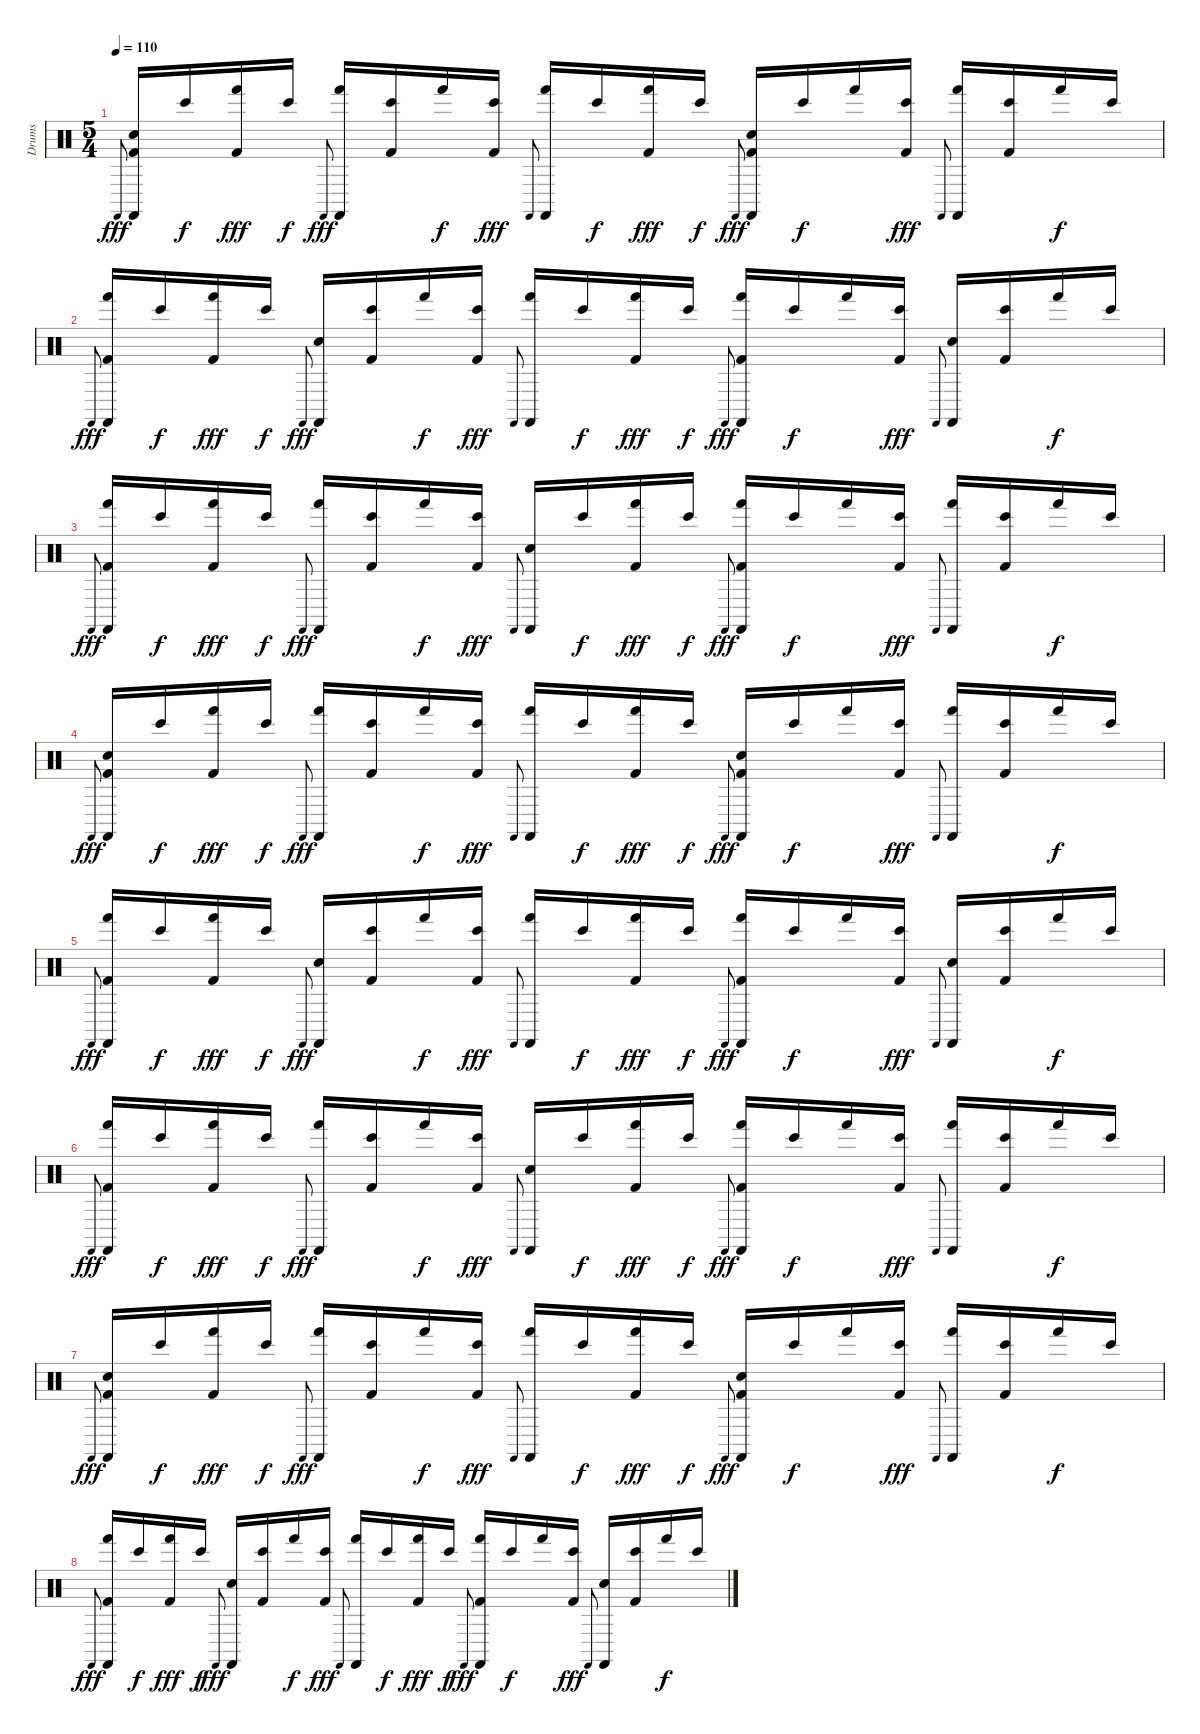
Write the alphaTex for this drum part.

\track ("Drums" "Drums") {instrument percussion}
\staff {score}
\articulation defaults
\ts (5 4)
\tempo 110
\clef neutral
\ks c "Castanets (hit)".8{gr onbeat dy fff}
("Castanets (hit)" "Snare (hit) 2" "Kick (hit) 2").16 "Bongo High (hit)".16{dy f} ("Hand (hit)" "Kick (hit) 2").16{dy fff} "Bongo High (hit)".16{dy f} "Castanets (hit)".8{gr onbeat dy fff} ("Castanets (hit)" "Hand (hit)").16 ("Bongo High (hit)" "Kick (hit) 2").16 "Hand (hit)".16{dy f} ("Bongo High (hit)" "Kick (hit) 2").16{dy fff} "Castanets (hit)".8{gr onbeat} ("Castanets (hit)" "Hand (hit)").16 "Bongo High (hit)".16{dy f} ("Hand (hit)" "Kick (hit) 2").16{dy fff} "Bongo High (hit)".16{dy f} "Castanets (hit)".8{gr onbeat dy fff} ("Castanets (hit)" "Snare (hit) 2" "Kick (hit) 2").16 "Bongo High (hit)".16{dy f} "Hand (hit)".16 ("Bongo High (hit)" "Kick (hit) 2").16{dy fff} "Castanets (hit)".8{gr onbeat} ("Castanets (hit)" "Hand (hit)").16 ("Bongo High (hit)" "Kick (hit) 2").16 "Hand (hit)".16{dy f} "Bongo High (hit)".16 |
"Castanets (hit)".8{gr onbeat dy fff} ("Castanets (hit)" "Hand (hit)" "Kick (hit) 2").16 "Bongo High (hit)".16{dy f} ("Hand (hit)" "Kick (hit) 2").16{dy fff} "Bongo High (hit)".16{dy f} "Castanets (hit)".8{gr onbeat dy fff} ("Castanets (hit)" "Snare (hit) 2").16 ("Bongo High (hit)" "Kick (hit) 2").16 "Hand (hit)".16{dy f} ("Bongo High (hit)" "Kick (hit) 2").16{dy fff} "Castanets (hit)".8{gr onbeat} ("Castanets (hit)" "Hand (hit)").16 "Bongo High (hit)".16{dy f} ("Hand (hit)" "Kick (hit) 2").16{dy fff} "Bongo High (hit)".16{dy f} "Castanets (hit)".8{gr onbeat dy fff} ("Castanets (hit)" "Hand (hit)" "Kick (hit) 2").16 "Bongo High (hit)".16{dy f} "Hand (hit)".16 ("Bongo High (hit)" "Kick (hit) 2").16{dy fff} "Castanets (hit)".8{gr onbeat} ("Castanets (hit)" "Snare (hit) 2").16 ("Bongo High (hit)" "Kick (hit) 2").16 "Hand (hit)".16{dy f} "Bongo High (hit)".16 |
"Castanets (hit)".8{gr onbeat dy fff} ("Castanets (hit)" "Hand (hit)" "Kick (hit) 2").16 "Bongo High (hit)".16{dy f} ("Hand (hit)" "Kick (hit) 2").16{dy fff} "Bongo High (hit)".16{dy f} "Castanets (hit)".8{gr onbeat dy fff} ("Castanets (hit)" "Hand (hit)").16 ("Bongo High (hit)" "Kick (hit) 2").16 "Hand (hit)".16{dy f} ("Bongo High (hit)" "Kick (hit) 2").16{dy fff} "Castanets (hit)".8{gr onbeat} ("Castanets (hit)" "Snare (hit) 2").16 "Bongo High (hit)".16{dy f} ("Hand (hit)" "Kick (hit) 2").16{dy fff} "Bongo High (hit)".16{dy f} "Castanets (hit)".8{gr onbeat dy fff} ("Castanets (hit)" "Hand (hit)" "Kick (hit) 2").16 "Bongo High (hit)".16{dy f} "Hand (hit)".16 ("Bongo High (hit)" "Kick (hit) 2").16{dy fff} "Castanets (hit)".8{gr onbeat} ("Castanets (hit)" "Hand (hit)").16 ("Bongo High (hit)" "Kick (hit) 2").16 "Hand (hit)".16{dy f} "Bongo High (hit)".16 |
"Castanets (hit)".8{gr onbeat dy fff} ("Castanets (hit)" "Snare (hit) 2" "Kick (hit) 2").16 "Bongo High (hit)".16{dy f} ("Hand (hit)" "Kick (hit) 2").16{dy fff} "Bongo High (hit)".16{dy f} "Castanets (hit)".8{gr onbeat dy fff} ("Castanets (hit)" "Hand (hit)").16 ("Bongo High (hit)" "Kick (hit) 2").16 "Hand (hit)".16{dy f} ("Bongo High (hit)" "Kick (hit) 2").16{dy fff} "Castanets (hit)".8{gr onbeat} ("Castanets (hit)" "Hand (hit)").16 "Bongo High (hit)".16{dy f} ("Hand (hit)" "Kick (hit) 2").16{dy fff} "Bongo High (hit)".16{dy f} "Castanets (hit)".8{gr onbeat dy fff} ("Castanets (hit)" "Snare (hit) 2" "Kick (hit) 2").16 "Bongo High (hit)".16{dy f} "Hand (hit)".16 ("Bongo High (hit)" "Kick (hit) 2").16{dy fff} "Castanets (hit)".8{gr onbeat} ("Castanets (hit)" "Hand (hit)").16 ("Bongo High (hit)" "Kick (hit) 2").16 "Hand (hit)".16{dy f} "Bongo High (hit)".16 |
"Castanets (hit)".8{gr onbeat dy fff} ("Castanets (hit)" "Hand (hit)" "Kick (hit) 2").16 "Bongo High (hit)".16{dy f} ("Hand (hit)" "Kick (hit) 2").16{dy fff} "Bongo High (hit)".16{dy f} "Castanets (hit)".8{gr onbeat dy fff} ("Castanets (hit)" "Snare (hit) 2").16 ("Bongo High (hit)" "Kick (hit) 2").16 "Hand (hit)".16{dy f} ("Bongo High (hit)" "Kick (hit) 2").16{dy fff} "Castanets (hit)".8{gr onbeat} ("Castanets (hit)" "Hand (hit)").16 "Bongo High (hit)".16{dy f} ("Hand (hit)" "Kick (hit) 2").16{dy fff} "Bongo High (hit)".16{dy f} "Castanets (hit)".8{gr onbeat dy fff} ("Castanets (hit)" "Hand (hit)" "Kick (hit) 2").16 "Bongo High (hit)".16{dy f} "Hand (hit)".16 ("Bongo High (hit)" "Kick (hit) 2").16{dy fff} "Castanets (hit)".8{gr onbeat} ("Castanets (hit)" "Snare (hit) 2").16 ("Bongo High (hit)" "Kick (hit) 2").16 "Hand (hit)".16{dy f} "Bongo High (hit)".16 |
"Castanets (hit)".8{gr onbeat dy fff} ("Castanets (hit)" "Hand (hit)" "Kick (hit) 2").16 "Bongo High (hit)".16{dy f} ("Hand (hit)" "Kick (hit) 2").16{dy fff} "Bongo High (hit)".16{dy f} "Castanets (hit)".8{gr onbeat dy fff} ("Castanets (hit)" "Hand (hit)").16 ("Bongo High (hit)" "Kick (hit) 2").16 "Hand (hit)".16{dy f} ("Bongo High (hit)" "Kick (hit) 2").16{dy fff} "Castanets (hit)".8{gr onbeat} ("Castanets (hit)" "Snare (hit) 2").16 "Bongo High (hit)".16{dy f} ("Hand (hit)" "Kick (hit) 2").16{dy fff} "Bongo High (hit)".16{dy f} "Castanets (hit)".8{gr onbeat dy fff} ("Castanets (hit)" "Hand (hit)" "Kick (hit) 2").16 "Bongo High (hit)".16{dy f} "Hand (hit)".16 ("Bongo High (hit)" "Kick (hit) 2").16{dy fff} "Castanets (hit)".8{gr onbeat} ("Castanets (hit)" "Hand (hit)").16 ("Bongo High (hit)" "Kick (hit) 2").16 "Hand (hit)".16{dy f} "Bongo High (hit)".16 |
"Castanets (hit)".8{gr onbeat dy fff} ("Castanets (hit)" "Snare (hit) 2" "Kick (hit) 2").16 "Bongo High (hit)".16{dy f} ("Hand (hit)" "Kick (hit) 2").16{dy fff} "Bongo High (hit)".16{dy f} "Castanets (hit)".8{gr onbeat dy fff} ("Castanets (hit)" "Hand (hit)").16 ("Bongo High (hit)" "Kick (hit) 2").16 "Hand (hit)".16{dy f} ("Bongo High (hit)" "Kick (hit) 2").16{dy fff} "Castanets (hit)".8{gr onbeat} ("Castanets (hit)" "Hand (hit)").16 "Bongo High (hit)".16{dy f} ("Hand (hit)" "Kick (hit) 2").16{dy fff} "Bongo High (hit)".16{dy f} "Castanets (hit)".8{gr onbeat dy fff} ("Castanets (hit)" "Snare (hit) 2" "Kick (hit) 2").16 "Bongo High (hit)".16{dy f} "Hand (hit)".16 ("Bongo High (hit)" "Kick (hit) 2").16{dy fff} "Castanets (hit)".8{gr onbeat} ("Castanets (hit)" "Hand (hit)").16 ("Bongo High (hit)" "Kick (hit) 2").16 "Hand (hit)".16{dy f} "Bongo High (hit)".16 |
"Castanets (hit)".8{gr onbeat dy fff} ("Castanets (hit)" "Hand (hit)" "Kick (hit) 2").16 "Bongo High (hit)".16{dy f} ("Hand (hit)" "Kick (hit) 2").16{dy fff} "Bongo High (hit)".16{dy f} "Castanets (hit)".8{gr onbeat dy fff} ("Castanets (hit)" "Snare (hit) 2").16 ("Bongo High (hit)" "Kick (hit) 2").16 "Hand (hit)".16{dy f} ("Bongo High (hit)" "Kick (hit) 2").16{dy fff} "Castanets (hit)".8{gr onbeat} ("Castanets (hit)" "Hand (hit)").16 "Bongo High (hit)".16{dy f} ("Hand (hit)" "Kick (hit) 2").16{dy fff} "Bongo High (hit)".16{dy f} "Castanets (hit)".8{gr onbeat dy fff} ("Castanets (hit)" "Hand (hit)" "Kick (hit) 2").16 "Bongo High (hit)".16{dy f} "Hand (hit)".16 ("Bongo High (hit)" "Kick (hit) 2").16{dy fff} "Castanets (hit)".8{gr onbeat} ("Castanets (hit)" "Snare (hit) 2").16 ("Bongo High (hit)" "Kick (hit) 2").16 "Hand (hit)".16{dy f} "Bongo High (hit)".16
